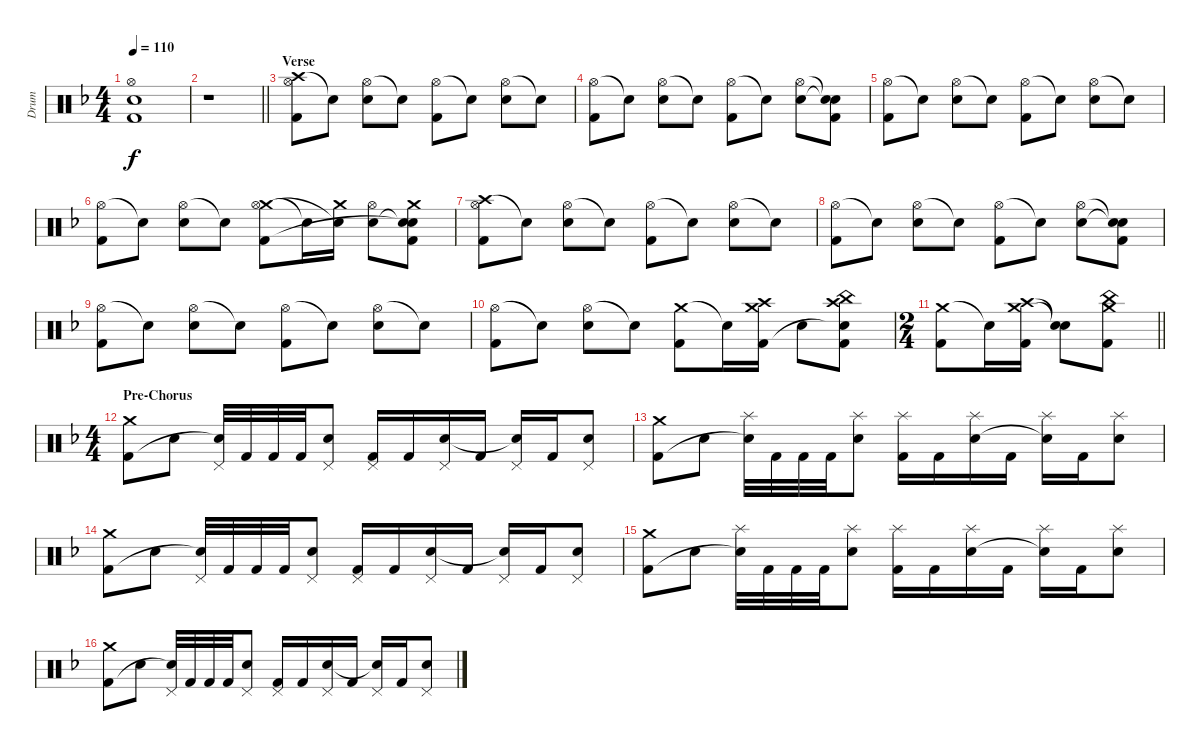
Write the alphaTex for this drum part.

\track ("Drum" "Drum") {instrument percussion}
\staff {score}
\articulation defaults
\ts (4 4)
\tempo 110
\clef neutral
\ks f
("Hi-Hat (open)" "Electric Snare (hit)" "Kick (hit) 2").1{dy f} |
\barLineRight lightlight
r.1 |
\section ("" "Verse")
("Crash high (hit)" "Hi-Hat (open)" "Kick (hit) 2").8 "Snare (hit)"{t}.8 ("Hi-Hat (open)" "Electric Snare (hit)").8 "Snare (hit)"{t}.8 ("Hi-Hat (open)" "Kick (hit) 2").8 "Snare (hit)"{t}.8 ("Hi-Hat (open)" "Electric Snare (hit)").8 "Snare (hit)"{t}.8 |
("Hi-Hat (open)" "Kick (hit) 2").8 "Snare (hit)"{t}.8 ("Hi-Hat (open)" "Electric Snare (hit)").8 "Snare (hit)"{t}.8 ("Hi-Hat (open)" "Kick (hit) 2").8 "Snare (hit)"{t}.8 ("Hi-Hat (open)" "Electric Snare (hit)").8 ("Snare (hit)"{t} "Snare (hit)"{t} "Kick (hit) 2").8 |
("Hi-Hat (open)" "Kick (hit) 2").8 "Snare (hit)"{t}.8 ("Hi-Hat (open)" "Electric Snare (hit)").8 "Snare (hit)"{t}.8 ("Hi-Hat (open)" "Kick (hit) 2").8 "Snare (hit)"{t}.8 ("Hi-Hat (open)" "Electric Snare (hit)").8 "Snare (hit)"{t}.8 |
("Hi-Hat (open)" "Kick (hit) 2").8 "Snare (hit)"{t}.8 ("Hi-Hat (open)" "Electric Snare (hit)").8 "Snare (hit)"{t}.8 ("Crash medium (hit)" "Hi-Hat (open)" "Kick (hit) 2").8 "Snare (hit)"{t}.16 ("Crash medium (hit)" "Snare (hit)"{t}).16 ("Hi-Hat (open)" "Snare (hit) 2").8 ("Crash medium (hit)" "Snare (hit)"{t} "Snare (hit)"{t} "Kick (hit) 2").8 |
("Crash high (hit)" "Hi-Hat (open)" "Kick (hit) 2").8 "Snare (hit)"{t}.8 ("Hi-Hat (open)" "Electric Snare (hit)").8 "Snare (hit)"{t}.8 ("Hi-Hat (open)" "Kick (hit) 2").8 "Snare (hit)"{t}.8 ("Hi-Hat (open)" "Electric Snare (hit)").8 "Snare (hit)"{t}.8 |
("Hi-Hat (open)" "Kick (hit) 2").8 "Snare (hit)"{t}.8 ("Hi-Hat (open)" "Electric Snare (hit)").8 "Snare (hit)"{t}.8 ("Hi-Hat (open)" "Kick (hit) 2").8 "Snare (hit)"{t}.8 ("Hi-Hat (open)" "Electric Snare (hit)").8 ("Snare (hit)"{t} "Snare (hit)"{t} "Kick (hit) 2").8 |
("Hi-Hat (open)" "Kick (hit) 2").8 "Snare (hit)"{t}.8 ("Hi-Hat (open)" "Electric Snare (hit)").8 "Snare (hit)"{t}.8 ("Hi-Hat (open)" "Kick (hit) 2").8 "Snare (hit)"{t}.8 ("Hi-Hat (open)" "Electric Snare (hit)").8 "Snare (hit)"{t}.8 |
("Hi-Hat (open)" "Kick (hit) 2").8 "Snare (hit)"{t}.8 ("Hi-Hat (open)" "Snare (hit) 2").8 "Snare (hit)"{t}.8 ("Crash medium (hit)" "Kick (hit) 2").8 "Snare (hit)"{t}.16 ("Crash medium (hit)" "Crash high (hit)" "Kick (hit) 2").16 "Snare (hit) 2".8 ("Crash high (hit)" "China (hit)" "Snare (hit)"{t} "Kick (hit) 2").8 |
\ts (2 4)
\barLineRight lightlight
("Crash medium (hit)" "Kick (hit) 2").8 "Snare (hit)"{t}.16 ("Crash medium (hit)" "Crash high (hit)" "Kick (hit) 2").16 ("Snare (hit)"{t} "Snare (hit)"{t}).8 ("Crash medium (hit)" "China (hit)" "Kick (hit) 2").8 |
\ts (4 4)
\section ("" "Pre-Chorus")
("Crash medium (hit)" "Kick (hit) 2").8 "Electric Snare (hit)".8 ("Pedal Hi-Hat (hit)" "Snare (hit)"{t}).32 "Kick (hit) 2".32 "Kick (hit) 2".32 "Kick (hit) 2".32 ("Pedal Hi-Hat (hit)" "Electric Snare (hit)").8 ("Pedal Hi-Hat (hit)" "Kick (hit) 2").16 "Kick (hit) 2".16 ("Pedal Hi-Hat (hit)" "Electric Snare (hit)").16 "Kick (hit) 2".16 ("Pedal Hi-Hat (hit)" "Snare (hit)"{t}).16 "Kick (hit) 2".16 ("Pedal Hi-Hat (hit)" "Electric Snare (hit)").8 |
("Crash medium (hit)" "Kick (hit) 2").8 "Electric Snare (hit)".8 ("Splash (hit)" "Snare (hit)"{t}).32 "Kick (hit) 2".32 "Kick (hit) 2".32 "Kick (hit) 2".32 ("Splash (hit)" "Electric Snare (hit)").8 ("Splash (hit)" "Kick (hit) 2").16 "Kick (hit) 2".16 ("Splash (hit)" "Electric Snare (hit)").16 "Kick (hit) 2".16 ("Splash (hit)" "Snare (hit)"{t}).16 "Kick (hit) 2".16 ("Splash (hit)" "Electric Snare (hit)").8 |
("Crash medium (hit)" "Kick (hit) 2").8 "Electric Snare (hit)".8 ("Pedal Hi-Hat (hit)" "Snare (hit)"{t}).32 "Kick (hit) 2".32 "Kick (hit) 2".32 "Kick (hit) 2".32 ("Pedal Hi-Hat (hit)" "Electric Snare (hit)").8 ("Pedal Hi-Hat (hit)" "Kick (hit) 2").16 "Kick (hit) 2".16 ("Pedal Hi-Hat (hit)" "Electric Snare (hit)").16 "Kick (hit) 2".16 ("Pedal Hi-Hat (hit)" "Snare (hit)"{t}).16 "Kick (hit) 2".16 ("Pedal Hi-Hat (hit)" "Electric Snare (hit)").8 |
("Crash medium (hit)" "Kick (hit) 2").8 "Electric Snare (hit)".8 ("Splash (hit)" "Snare (hit)"{t}).32 "Kick (hit) 2".32 "Kick (hit) 2".32 "Kick (hit) 2".32 ("Splash (hit)" "Electric Snare (hit)").8 ("Splash (hit)" "Kick (hit) 2").16 "Kick (hit) 2".16 ("Splash (hit)" "Electric Snare (hit)").16 "Kick (hit) 2".16 ("Splash (hit)" "Snare (hit)"{t}).16 "Kick (hit) 2".16 ("Splash (hit)" "Electric Snare (hit)").8 |
("Crash medium (hit)" "Kick (hit) 2").8 "Snare (hit) 2".8 ("Pedal Hi-Hat (hit)" "Snare (hit)"{t}).32 "Kick (hit) 2".32 "Kick (hit) 2".32 "Kick (hit) 2".32 ("Pedal Hi-Hat (hit)" "Snare (hit) 2").8 ("Pedal Hi-Hat (hit)" "Kick (hit) 2").16 "Kick (hit) 2".16 ("Pedal Hi-Hat (hit)" "Snare (hit) 2").16 "Kick (hit) 2".16 ("Pedal Hi-Hat (hit)" "Snare (hit)"{t}).16 "Kick (hit) 2".16 ("Pedal Hi-Hat (hit)" "Snare (hit) 2").8
